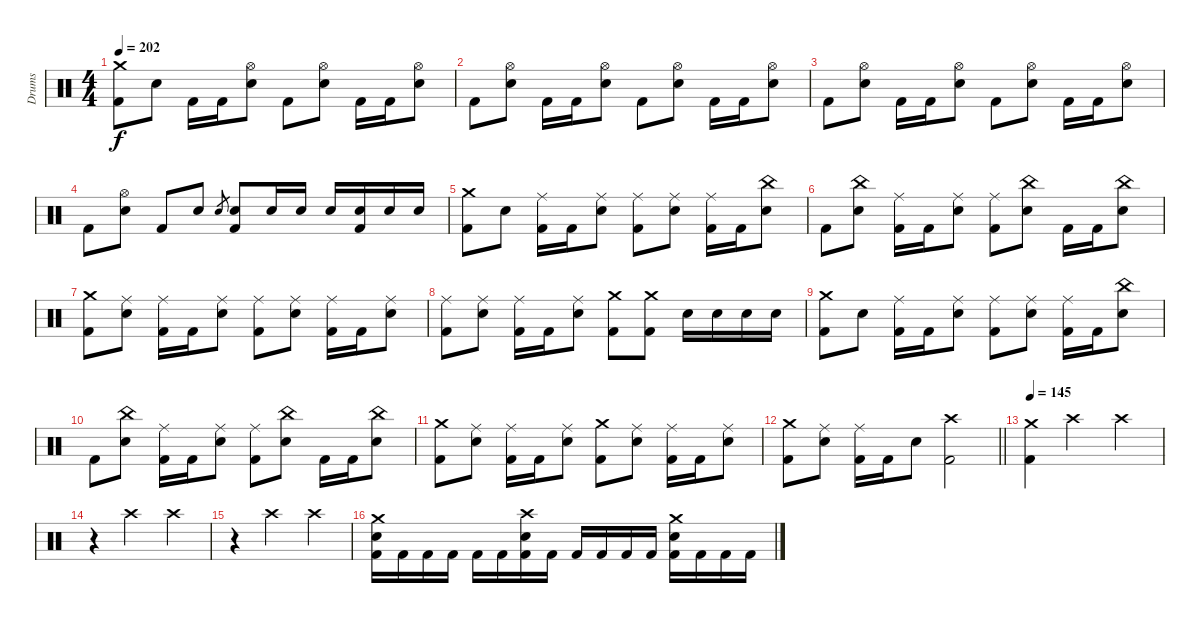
\track ("Drums" "Drums") {instrument percussion}
\staff {score}
\articulation defaults
\ts (4 4)
\tempo 202
\clef neutral
\ks c
("Crash medium (hit)" "Kick (hit) 2").8{dy f} "Electric Snare (hit)".8 "Kick (hit) 2".16 "Kick (hit) 2".16 ("Hi-Hat (open)" "Electric Snare (hit)").8 "Kick (hit) 2".8 ("Hi-Hat (open)" "Electric Snare (hit)").8 "Kick (hit) 2".16 "Kick (hit) 2".16 ("Hi-Hat (open)" "Electric Snare (hit)").8 |
"Kick (hit) 2".8 ("Hi-Hat (open)" "Electric Snare (hit)").8 "Kick (hit) 2".16 "Kick (hit) 2".16 ("Hi-Hat (open)" "Electric Snare (hit)").8 "Kick (hit) 2".8 ("Hi-Hat (open)" "Electric Snare (hit)").8 "Kick (hit) 2".16 "Kick (hit) 2".16 ("Hi-Hat (open)" "Electric Snare (hit)").8 |
"Kick (hit) 2".8 ("Hi-Hat (open)" "Electric Snare (hit)").8 "Kick (hit) 2".16 "Kick (hit) 2".16 ("Hi-Hat (open)" "Electric Snare (hit)").8 "Kick (hit) 2".8 ("Hi-Hat (open)" "Electric Snare (hit)").8 "Kick (hit) 2".16 "Kick (hit) 2".16 ("Hi-Hat (open)" "Electric Snare (hit)").8 |
"Kick (hit) 2".8 ("Hi-Hat (open)" "Electric Snare (hit)").8 "Kick (hit) 2".8 "Electric Snare (hit)".8 "Electric Snare (hit)".8{gr} ("Electric Snare (hit)" "Kick (hit) 2").8 "Electric Snare (hit)".16 "Electric Snare (hit)".16 "Electric Snare (hit)".16 ("Electric Snare (hit)" "Kick (hit) 2").16 "Electric Snare (hit)".16 "Electric Snare (hit)".16 |
("Crash medium (hit)" "Kick (hit) 2").8 "Electric Snare (hit)".8 ("Ride (middle)" "Kick (hit) 2").16 "Kick (hit) 2".16 ("Ride (middle)" "Electric Snare (hit)").8 ("Ride (middle)" "Kick (hit) 2").8 ("Ride (middle)" "Electric Snare (hit)").8 ("Ride (middle)" "Kick (hit) 2").16 "Kick (hit) 2".16 ("China (hit)" "Electric Snare (hit)").8 |
"Kick (hit) 2".8 ("China (hit)" "Electric Snare (hit)").8 ("Ride (middle)" "Kick (hit) 2").16 "Kick (hit) 2".16 ("Ride (middle)" "Electric Snare (hit)").8 ("Ride (middle)" "Kick (hit) 2").8 ("China (hit)" "Electric Snare (hit)").8 "Kick (hit) 2".16 "Kick (hit) 2".16 ("China (hit)" "Electric Snare (hit)").8 |
("Crash medium (hit)" "Kick (hit) 2").8 ("Ride (middle)" "Electric Snare (hit)").8 ("Ride (middle)" "Kick (hit) 2").16 "Kick (hit) 2".16 ("Ride (middle)" "Electric Snare (hit)").8 ("Ride (middle)" "Kick (hit) 2").8 ("Ride (middle)" "Electric Snare (hit)").8 ("Ride (middle)" "Kick (hit) 2").16 "Kick (hit) 2".16 ("Ride (middle)" "Electric Snare (hit)").8 |
("Ride (middle)" "Kick (hit) 2").8 ("Ride (middle)" "Electric Snare (hit)").8 ("Ride (middle)" "Kick (hit) 2").16 "Kick (hit) 2".16 ("Ride (middle)" "Electric Snare (hit)").8 ("Crash medium (hit)" "Kick (hit) 2").8 ("Crash medium (hit)" "Kick (hit) 2").8 "Electric Snare (hit)".16 "Electric Snare (hit)".16 "Electric Snare (hit)".16 "Electric Snare (hit)".16 |
("Crash medium (hit)" "Kick (hit) 2").8 "Electric Snare (hit)".8 ("Ride (middle)" "Kick (hit) 2").16 "Kick (hit) 2".16 ("Ride (middle)" "Electric Snare (hit)").8 ("Ride (middle)" "Kick (hit) 2").8 ("Ride (middle)" "Electric Snare (hit)").8 ("Ride (middle)" "Kick (hit) 2").16 "Kick (hit) 2".16 ("China (hit)" "Electric Snare (hit)").8 |
"Kick (hit) 2".8 ("China (hit)" "Electric Snare (hit)").8 ("Ride (middle)" "Kick (hit) 2").16 "Kick (hit) 2".16 ("Ride (middle)" "Electric Snare (hit)").8 ("Ride (middle)" "Kick (hit) 2").8 ("China (hit)" "Electric Snare (hit)").8 "Kick (hit) 2".16 "Kick (hit) 2".16 ("China (hit)" "Electric Snare (hit)").8 |
("Crash medium (hit)" "Kick (hit) 2").8 ("Ride (middle)" "Electric Snare (hit)").8 ("Ride (middle)" "Kick (hit) 2").16 "Kick (hit) 2".16 ("Ride (middle)" "Electric Snare (hit)").8 ("Crash medium (hit)" "Kick (hit) 2").8 ("Ride (middle)" "Electric Snare (hit)").8 ("Ride (middle)" "Kick (hit) 2").16 "Kick (hit) 2".16 ("Ride (middle)" "Electric Snare (hit)").8 |
\barLineRight lightlight
("Crash medium (hit)" "Kick (hit) 2").8 ("Ride (middle)" "Electric Snare (hit)").8 ("Ride (middle)" "Kick (hit) 2").16 "Kick (hit) 2".16 "Electric Snare (hit)".8 ("Crash high (hit)" "Kick (hit) 2").2 |
\section ("" "")
\tempo 145
("Crash medium (hit)" "Kick (hit) 2").4 "Crash high (hit)".2 "Crash high (hit)".4 |
r.4 "Crash high (hit)".2 "Crash high (hit)".4 |
r.4 "Crash high (hit)".2 "Crash high (hit)".4 |
("Crash medium (hit)" "Electric Snare (hit)" "Kick (hit) 2").16 "Kick (hit) 2".16 "Kick (hit) 2".16 "Kick (hit) 2".16 "Kick (hit) 2".16 "Kick (hit) 2".16 ("Crash high (hit)" "Electric Snare (hit)" "Kick (hit) 2").16 "Kick (hit) 2".16 "Kick (hit) 2".16 "Kick (hit) 2".16 "Kick (hit) 2".16 "Kick (hit) 2".16 ("Crash medium (hit)" "Electric Snare (hit)" "Kick (hit) 2").16 "Kick (hit) 2".16 "Kick (hit) 2".16 "Kick (hit) 2".16
